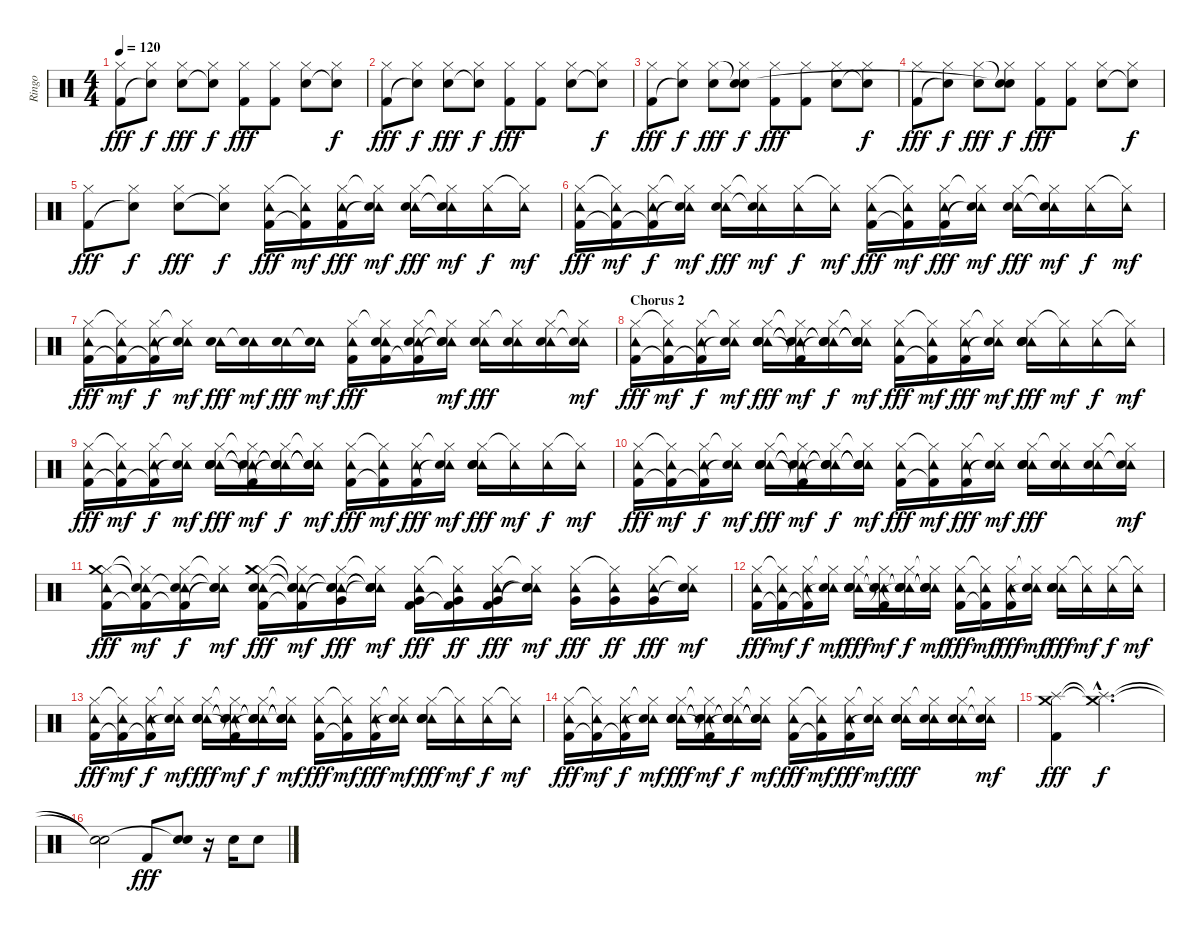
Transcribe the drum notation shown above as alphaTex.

\track ("Ringo" "Ringo") {instrument percussion}
\staff {score}
\articulation defaults
\ts (4 4)
\tempo 120
\clef neutral
\ks c
("Hi-Hat (closed)" "Kick (hit) 2").8{dy fff} ("Hi-Hat (closed)" "Snare (hit)"{t}).8{dy f} ("Hi-Hat (closed)" "Electric Snare (hit)").8{dy fff} ("Hi-Hat (closed)" "Snare (hit)"{t}).8{dy f} ("Hi-Hat (closed)" "Kick (hit) 2").8{dy fff} ("Hi-Hat (closed)" "Kick (hit) 2").8 ("Hi-Hat (closed)" "Electric Snare (hit)").8 ("Hi-Hat (closed)" "Snare (hit)"{t}).8{dy f} |
("Hi-Hat (closed)" "Kick (hit) 2").8{dy fff} ("Hi-Hat (closed)" "Snare (hit)"{t}).8{dy f} ("Hi-Hat (closed)" "Electric Snare (hit)").8{dy fff} ("Hi-Hat (closed)" "Snare (hit)"{t}).8{dy f} ("Hi-Hat (closed)" "Kick (hit) 2").8{dy fff} ("Hi-Hat (closed)" "Kick (hit) 2").8 ("Hi-Hat (closed)" "Electric Snare (hit)").8 ("Hi-Hat (closed)" "Snare (hit)"{t}).8{dy f} |
("Hi-Hat (closed)" "Kick (hit) 2").8{dy fff} ("Hi-Hat (closed)" "Snare (hit)"{t}).8{dy f} ("Hi-Hat (closed)" "Electric Snare (hit)").8{dy fff} ("Snare (hit)"{t} "Hi-Hat (closed)" "Snare (hit)").8{dy f} ("Hi-Hat (closed)" "Kick (hit) 2").8{dy fff} ("Hi-Hat (closed)" "Kick (hit) 2").8 ("Hi-Hat (closed)" "Electric Snare (hit)").8 ("Hi-Hat (closed)" "Snare (hit)"{t}).8{dy f} |
("Hi-Hat (closed)" "Kick (hit) 2").8{dy fff} ("Hi-Hat (closed)" "Snare (hit)"{t}).8{dy f} ("Hi-Hat (closed)" "Electric Snare (hit)").8{dy fff} ("Snare (hit)"{t} "Hi-Hat (closed)" "Snare (hit)"{t}).8{dy f} ("Hi-Hat (closed)" "Kick (hit) 2").8{dy fff} ("Hi-Hat (closed)" "Kick (hit) 2").8 ("Hi-Hat (closed)" "Electric Snare (hit)").8 ("Hi-Hat (closed)" "Snare (hit)"{t}).8{dy f} |
("Hi-Hat (closed)" "Kick (hit) 2").8{dy fff} ("Hi-Hat (closed)" "Snare (hit)"{t}).8{dy f} ("Hi-Hat (closed)" "Electric Snare (hit)").8{dy fff} ("Hi-Hat (closed)" "Snare (hit)"{t}).8{dy f} ("Tambourine (hit)" "Hi-Hat (closed)" "Kick (hit) 2").16{dy fff} ("Tambourine (hit)" "Hi-Hat (closed)"{t} "Kick (hit) 2"{t}).16{dy mf} ("Tambourine (hit)" "Hi-Hat (closed)" "Kick (hit) 2").16{dy fff} ("Tambourine (hit)" "Hi-Hat (closed)"{t} "Snare (hit)"{t}).16{dy mf} ("Tambourine (hit)" "Hi-Hat (closed)" "Electric Snare (hit)").16{dy fff} ("Tambourine (hit)" "Hi-Hat (closed)"{t} "Snare (hit)"{t}).16{dy mf} ("Tambourine (hit)" "Hi-Hat (closed)").16{dy f} ("Tambourine (hit)" "Hi-Hat (closed)"{t}).16{dy mf} |
("Tambourine (hit)" "Hi-Hat (closed)" "Kick (hit) 2").16{dy fff} ("Tambourine (hit)" "Hi-Hat (closed)"{t} "Kick (hit) 2"{t}).16{dy mf} ("Tambourine (hit)" "Hi-Hat (closed)" "Kick (hit) 2"{t}).16{dy f} ("Tambourine (hit)" "Hi-Hat (closed)"{t} "Snare (hit)"{t}).16{dy mf} ("Tambourine (hit)" "Hi-Hat (closed)" "Electric Snare (hit)").16{dy fff} ("Tambourine (hit)" "Hi-Hat (closed)"{t} "Snare (hit)"{t}).16{dy mf} ("Tambourine (hit)" "Hi-Hat (closed)").16{dy f} ("Tambourine (hit)" "Hi-Hat (closed)"{t}).16{dy mf} ("Tambourine (hit)" "Hi-Hat (closed)" "Kick (hit) 2").16{dy fff} ("Tambourine (hit)" "Hi-Hat (closed)"{t} "Kick (hit) 2"{t}).16{dy mf} ("Tambourine (hit)" "Hi-Hat (closed)" "Kick (hit) 2").16{dy fff} ("Tambourine (hit)" "Hi-Hat (closed)"{t} "Snare (hit)"{t}).16{dy mf} ("Tambourine (hit)" "Hi-Hat (closed)" "Electric Snare (hit)").16{dy fff} ("Tambourine (hit)" "Hi-Hat (closed)"{t} "Snare (hit)"{t}).16{dy mf} ("Tambourine (hit)" "Hi-Hat (closed)").16{dy f} ("Tambourine (hit)" "Hi-Hat (closed)"{t}).16{dy mf} |
("Tambourine (hit)" "Hi-Hat (closed)" "Kick (hit) 2").16{dy fff} ("Tambourine (hit)" "Hi-Hat (closed)"{t} "Kick (hit) 2"{t}).16{dy mf} ("Tambourine (hit)" "Hi-Hat (closed)" "Kick (hit) 2"{t}).16{dy f} ("Tambourine (hit)" "Hi-Hat (closed)"{t} "Snare (hit)"{t}).16{dy mf} ("Tambourine (hit)" "Electric Snare (hit)").16{dy fff} ("Tambourine (hit)" "Snare (hit)"{t}).16{dy mf} ("Tambourine (hit)" "Electric Snare (hit)").16{dy fff} ("Tambourine (hit)" "Snare (hit)"{t}).16{dy mf} ("Tambourine (hit)" "Hi-Hat (closed)" "Kick (hit) 2").16{dy fff} ("Tambourine (hit)" "Hi-Hat (closed)"{t} "Electric Snare (hit)" "Kick (hit) 2").16 ("Tambourine (hit)" "Hi-Hat (closed)" "Electric Snare (hit)" "Kick (hit) 2"{t}).16 ("Tambourine (hit)" "Hi-Hat (closed)"{t} "Snare (hit)"{t} "Snare (hit)"{t}).16{dy mf} ("Tambourine (hit)" "Hi-Hat (closed)" "Electric Snare (hit)").16{dy fff} ("Tambourine (hit)" "Hi-Hat (closed)"{t} "Electric Snare (hit)").16 ("Tambourine (hit)" "Hi-Hat (closed)" "Electric Snare (hit)").16 ("Tambourine (hit)" "Hi-Hat (closed)"{t} "Snare (hit)"{t}).16{dy mf} |
\section ("" "Chorus 2")
("Tambourine (hit)" "Hi-Hat (closed)" "Kick (hit) 2").16{dy fff} ("Tambourine (hit)" "Hi-Hat (closed)"{t} "Kick (hit) 2"{t}).16{dy mf} ("Tambourine (hit)" "Hi-Hat (closed)" "Kick (hit) 2"{t}).16{dy f} ("Tambourine (hit)" "Hi-Hat (closed)"{t} "Snare (hit)"{t}).16{dy mf} ("Tambourine (hit)" "Hi-Hat (closed)" "Electric Snare (hit)" "Hand Clap (hit)" "Hand Clap (hit)").16{dy fff} ("Tambourine (hit)" "Hi-Hat (closed)"{t} "Snare (hit)"{t} "Kick (hit) 2"{t} "Snare (hit)"{t}).16{dy mf} ("Tambourine (hit)" "Hi-Hat (closed)" "Electric Snare (hit)"{t} "Snare (hit)"{t} "Hand Clap (hit)"{t}).16{dy f} ("Tambourine (hit)" "Hi-Hat (closed)"{t} "Snare (hit)"{t} "Snare (hit)"{t} "Snare (hit)"{t}).16{dy mf} ("Tambourine (hit)" "Hi-Hat (closed)" "Kick (hit) 2").16{dy fff} ("Tambourine (hit)" "Hi-Hat (closed)"{t} "Kick (hit) 2"{t}).16{dy mf} ("Tambourine (hit)" "Hi-Hat (closed)" "Kick (hit) 2").16{dy fff} ("Tambourine (hit)" "Hi-Hat (closed)"{t} "Snare (hit)"{t}).16{dy mf} ("Tambourine (hit)" "Hi-Hat (closed)" "Electric Snare (hit)" "Hand Clap (hit)" "Hand Clap (hit)").16{dy fff} ("Tambourine (hit)" "Hi-Hat (closed)"{t}).16{dy mf} ("Tambourine (hit)" "Hi-Hat (closed)").16{dy f} ("Tambourine (hit)" "Hi-Hat (closed)"{t}).16{dy mf} |
("Tambourine (hit)" "Hi-Hat (closed)" "Kick (hit) 2").16{dy fff} ("Tambourine (hit)" "Hi-Hat (closed)"{t} "Kick (hit) 2"{t}).16{dy mf} ("Tambourine (hit)" "Hi-Hat (closed)" "Kick (hit) 2"{t}).16{dy f} ("Tambourine (hit)" "Hi-Hat (closed)"{t} "Snare (hit)"{t}).16{dy mf} ("Tambourine (hit)" "Hi-Hat (closed)" "Electric Snare (hit)" "Hand Clap (hit)" "Hand Clap (hit)").16{dy fff} ("Tambourine (hit)" "Hi-Hat (closed)"{t} "Snare (hit)"{t} "Kick (hit) 2"{t} "Snare (hit)"{t}).16{dy mf} ("Tambourine (hit)" "Hi-Hat (closed)" "Electric Snare (hit)"{t} "Snare (hit)"{t} "Hand Clap (hit)"{t}).16{dy f} ("Tambourine (hit)" "Hi-Hat (closed)"{t} "Snare (hit)"{t} "Snare (hit)"{t} "Snare (hit)"{t}).16{dy mf} ("Tambourine (hit)" "Hi-Hat (closed)" "Kick (hit) 2").16{dy fff} ("Tambourine (hit)" "Hi-Hat (closed)"{t} "Kick (hit) 2"{t}).16{dy mf} ("Tambourine (hit)" "Hi-Hat (closed)" "Kick (hit) 2").16{dy fff} ("Tambourine (hit)" "Hi-Hat (closed)"{t} "Snare (hit)"{t}).16{dy mf} ("Tambourine (hit)" "Hi-Hat (closed)" "Electric Snare (hit)" "Hand Clap (hit)" "Hand Clap (hit)").16{dy fff} ("Tambourine (hit)" "Hi-Hat (closed)"{t}).16{dy mf} ("Tambourine (hit)" "Hi-Hat (closed)").16{dy f} ("Tambourine (hit)" "Hi-Hat (closed)"{t}).16{dy mf} |
("Tambourine (hit)" "Hi-Hat (closed)" "Kick (hit) 2").16{dy fff} ("Tambourine (hit)" "Hi-Hat (closed)"{t} "Kick (hit) 2"{t}).16{dy mf} ("Tambourine (hit)" "Hi-Hat (closed)" "Kick (hit) 2"{t}).16{dy f} ("Tambourine (hit)" "Hi-Hat (closed)"{t} "Snare (hit)"{t}).16{dy mf} ("Tambourine (hit)" "Hi-Hat (closed)" "Electric Snare (hit)" "Hand Clap (hit)" "Hand Clap (hit)").16{dy fff} ("Tambourine (hit)" "Hi-Hat (closed)"{t} "Snare (hit)"{t} "Kick (hit) 2"{t} "Snare (hit)"{t}).16{dy mf} ("Tambourine (hit)" "Hi-Hat (closed)" "Electric Snare (hit)"{t} "Snare (hit)"{t} "Hand Clap (hit)"{t}).16{dy f} ("Tambourine (hit)" "Hi-Hat (closed)"{t} "Snare (hit)"{t} "Snare (hit)"{t} "Snare (hit)"{t}).16{dy mf} ("Tambourine (hit)" "Hi-Hat (closed)" "Kick (hit) 2").16{dy fff} ("Tambourine (hit)" "Hi-Hat (closed)"{t} "Kick (hit) 2"{t}).16{dy mf} ("Tambourine (hit)" "Hi-Hat (closed)" "Kick (hit) 2").16{dy fff} ("Tambourine (hit)" "Hi-Hat (closed)"{t} "Snare (hit)"{t}).16{dy mf} ("Tambourine (hit)" "Hi-Hat (closed)" "Electric Snare (hit)" "Hand Clap (hit)" "Hand Clap (hit)").16{dy fff} ("Tambourine (hit)" "Hi-Hat (closed)"{t} "Electric Snare (hit)").16 ("Tambourine (hit)" "Hi-Hat (closed)" "Electric Snare (hit)").16 ("Tambourine (hit)" "Hi-Hat (closed)"{t} "Snare (hit)"{t}).16{dy mf} |
("Tambourine (hit)" "Hi-Hat (closed)" "Kick (hit) 2" "Crash medium (hit)").16{dy fff} ("Tambourine (hit)" "Hi-Hat (closed)"{t} "Kick (hit) 2"{t} "Snare (hit)"{t}).16{dy mf} ("Tambourine (hit)" "Hi-Hat (closed)" "Kick (hit) 2"{t} "Snare (hit)"{t}).16{dy f} ("Tambourine (hit)" "Hi-Hat (closed)"{t} "Snare (hit)"{t} "Snare (hit)"{t}).16{dy mf} ("Tambourine (hit)" "Hi-Hat (closed)" "Electric Snare (hit)" "Kick (hit) 2" "Crash medium (hit)").16{dy fff} ("Tambourine (hit)" "Hi-Hat (closed)"{t} "Snare (hit)"{t} "Kick (hit) 2"{t} "Snare (hit)"{t}).16{dy mf} ("Tambourine (hit)" "Hi-Hat (closed)" "Very Low Tom (hit)" "Snare (hit)"{t} "Snare (hit)"{t}).16{dy fff} ("Tambourine (hit)" "Hi-Hat (closed)"{t} "Snare (hit)"{t} "Snare (hit)"{t} "Snare (hit)"{t}).16{dy mf} ("Tambourine (hit)" "Hi-Hat (closed)" "Very Low Tom (hit)" "Kick (hit) 2").16{dy fff} ("Tambourine (hit)" "Hi-Hat (closed)"{t} "Very Low Tom (hit)" "Kick (hit) 2"{t}).16{dy ff} ("Tambourine (hit)" "Hi-Hat (closed)" "Very Low Tom (hit)" "Kick (hit) 2").16{dy fff} ("Tambourine (hit)" "Hi-Hat (closed)"{t} "Snare (hit)"{t} "Snare (hit)"{t}).16{dy mf} ("Tambourine (hit)" "Hi-Hat (closed)" "Very Low Tom (hit)").16{dy fff} ("Tambourine (hit)" "Hi-Hat (closed)"{t} "Very Low Tom (hit)").16{dy ff} ("Tambourine (hit)" "Hi-Hat (closed)" "Very Low Tom (hit)").16{dy fff} ("Tambourine (hit)" "Hi-Hat (closed)"{t} "Snare (hit)"{t}).16{dy mf} |
("Tambourine (hit)" "Hi-Hat (closed)" "Kick (hit) 2").16{dy fff} ("Tambourine (hit)" "Hi-Hat (closed)"{t} "Kick (hit) 2"{t}).16{dy mf} ("Tambourine (hit)" "Hi-Hat (closed)" "Kick (hit) 2"{t}).16{dy f} ("Tambourine (hit)" "Hi-Hat (closed)"{t} "Snare (hit)"{t}).16{dy mf} ("Tambourine (hit)" "Hi-Hat (closed)" "Electric Snare (hit)" "Hand Clap (hit)" "Hand Clap (hit)").16{dy fff} ("Tambourine (hit)" "Hi-Hat (closed)"{t} "Snare (hit)"{t} "Kick (hit) 2"{t} "Snare (hit)"{t}).16{dy mf} ("Tambourine (hit)" "Hi-Hat (closed)" "Electric Snare (hit)"{t} "Snare (hit)"{t} "Hand Clap (hit)"{t}).16{dy f} ("Tambourine (hit)" "Hi-Hat (closed)"{t} "Snare (hit)"{t} "Snare (hit)"{t} "Snare (hit)"{t}).16{dy mf} ("Tambourine (hit)" "Hi-Hat (closed)" "Kick (hit) 2").16{dy fff} ("Tambourine (hit)" "Hi-Hat (closed)"{t} "Kick (hit) 2"{t}).16{dy mf} ("Tambourine (hit)" "Hi-Hat (closed)" "Kick (hit) 2").16{dy fff} ("Tambourine (hit)" "Hi-Hat (closed)"{t} "Snare (hit)"{t}).16{dy mf} ("Tambourine (hit)" "Hi-Hat (closed)" "Electric Snare (hit)" "Hand Clap (hit)" "Hand Clap (hit)").16{dy fff} ("Tambourine (hit)" "Hi-Hat (closed)"{t}).16{dy mf} ("Tambourine (hit)" "Hi-Hat (closed)").16{dy f} ("Tambourine (hit)" "Hi-Hat (closed)"{t}).16{dy mf} |
("Tambourine (hit)" "Hi-Hat (closed)" "Kick (hit) 2").16{dy fff} ("Tambourine (hit)" "Hi-Hat (closed)"{t} "Kick (hit) 2"{t}).16{dy mf} ("Tambourine (hit)" "Hi-Hat (closed)" "Kick (hit) 2"{t}).16{dy f} ("Tambourine (hit)" "Hi-Hat (closed)"{t} "Snare (hit)"{t}).16{dy mf} ("Tambourine (hit)" "Hi-Hat (closed)" "Electric Snare (hit)" "Hand Clap (hit)" "Hand Clap (hit)").16{dy fff} ("Tambourine (hit)" "Hi-Hat (closed)"{t} "Snare (hit)"{t} "Kick (hit) 2"{t} "Snare (hit)"{t}).16{dy mf} ("Tambourine (hit)" "Hi-Hat (closed)" "Electric Snare (hit)"{t} "Snare (hit)"{t} "Hand Clap (hit)"{t}).16{dy f} ("Tambourine (hit)" "Hi-Hat (closed)"{t} "Snare (hit)"{t} "Snare (hit)"{t} "Snare (hit)"{t}).16{dy mf} ("Tambourine (hit)" "Hi-Hat (closed)" "Kick (hit) 2").16{dy fff} ("Tambourine (hit)" "Hi-Hat (closed)"{t} "Kick (hit) 2"{t}).16{dy mf} ("Tambourine (hit)" "Hi-Hat (closed)" "Kick (hit) 2").16{dy fff} ("Tambourine (hit)" "Hi-Hat (closed)"{t} "Snare (hit)"{t}).16{dy mf} ("Tambourine (hit)" "Hi-Hat (closed)" "Electric Snare (hit)" "Hand Clap (hit)" "Hand Clap (hit)").16{dy fff} ("Tambourine (hit)" "Hi-Hat (closed)"{t}).16{dy mf} ("Tambourine (hit)" "Hi-Hat (closed)").16{dy f} ("Tambourine (hit)" "Hi-Hat (closed)"{t}).16{dy mf} |
("Tambourine (hit)" "Hi-Hat (closed)" "Kick (hit) 2").16{dy fff} ("Tambourine (hit)" "Hi-Hat (closed)"{t} "Kick (hit) 2"{t}).16{dy mf} ("Tambourine (hit)" "Hi-Hat (closed)" "Kick (hit) 2"{t}).16{dy f} ("Tambourine (hit)" "Hi-Hat (closed)"{t} "Snare (hit)"{t}).16{dy mf} ("Tambourine (hit)" "Hi-Hat (closed)" "Electric Snare (hit)" "Hand Clap (hit)" "Hand Clap (hit)").16{dy fff} ("Tambourine (hit)" "Hi-Hat (closed)"{t} "Snare (hit)"{t} "Kick (hit) 2"{t} "Snare (hit)"{t}).16{dy mf} ("Tambourine (hit)" "Hi-Hat (closed)" "Electric Snare (hit)"{t} "Snare (hit)"{t} "Hand Clap (hit)"{t}).16{dy f} ("Tambourine (hit)" "Hi-Hat (closed)"{t} "Snare (hit)"{t} "Snare (hit)"{t} "Snare (hit)"{t}).16{dy mf} ("Tambourine (hit)" "Hi-Hat (closed)" "Kick (hit) 2").16{dy fff} ("Tambourine (hit)" "Hi-Hat (closed)"{t} "Kick (hit) 2"{t}).16{dy mf} ("Tambourine (hit)" "Hi-Hat (closed)" "Kick (hit) 2").16{dy fff} ("Tambourine (hit)" "Hi-Hat (closed)"{t} "Snare (hit)"{t}).16{dy mf} ("Tambourine (hit)" "Hi-Hat (closed)" "Electric Snare (hit)" "Hand Clap (hit)" "Hand Clap (hit)").16{dy fff} ("Tambourine (hit)" "Hi-Hat (closed)"{t} "Electric Snare (hit)").16 ("Tambourine (hit)" "Hi-Hat (closed)" "Electric Snare (hit)").16 ("Tambourine (hit)" "Hi-Hat (closed)"{t} "Snare (hit)"{t}).16{dy mf} |
("Crash medium (hit)" "Splash (hit)" "Kick (hit) 2").4{dy fff} ("Crash medium (hit)"{hac t} "Splash (hit)"{hac t}).2{d dy f} |
("Snare (hit)"{t} "Snare (hit)"{t}).2 "Kick (hit) 2".8{dy fff} ("Electric Snare (hit)" "Snare (hit)"{t}).8 r.16 "Electric Snare (hit)".16 "Electric Snare (hit)".8
